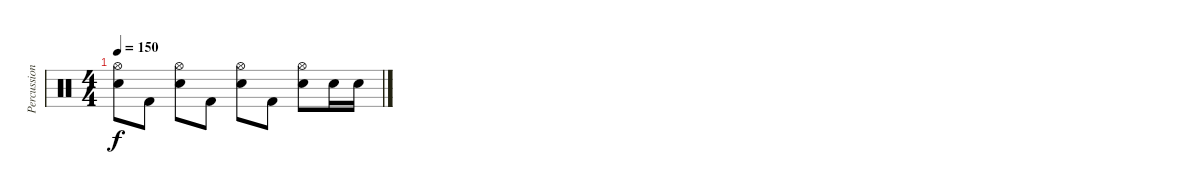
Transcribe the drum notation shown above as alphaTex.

\track ("Percussion" "Percussion") {instrument percussion}
\staff {score}
\articulation defaults
\ts (4 4)
\tempo 150
\clef neutral
\ks c
("Hi-Hat (open)" "Electric Snare (hit)").8{dy f} "Kick (hit) 2".8 ("Hi-Hat (open)" "Electric Snare (hit)").8 "Kick (hit) 2".8 ("Hi-Hat (open)" "Electric Snare (hit)").8 "Kick (hit) 2".8 ("Hi-Hat (open)" "Electric Snare (hit)").8 "Electric Snare (hit)".16 "Electric Snare (hit)".16
